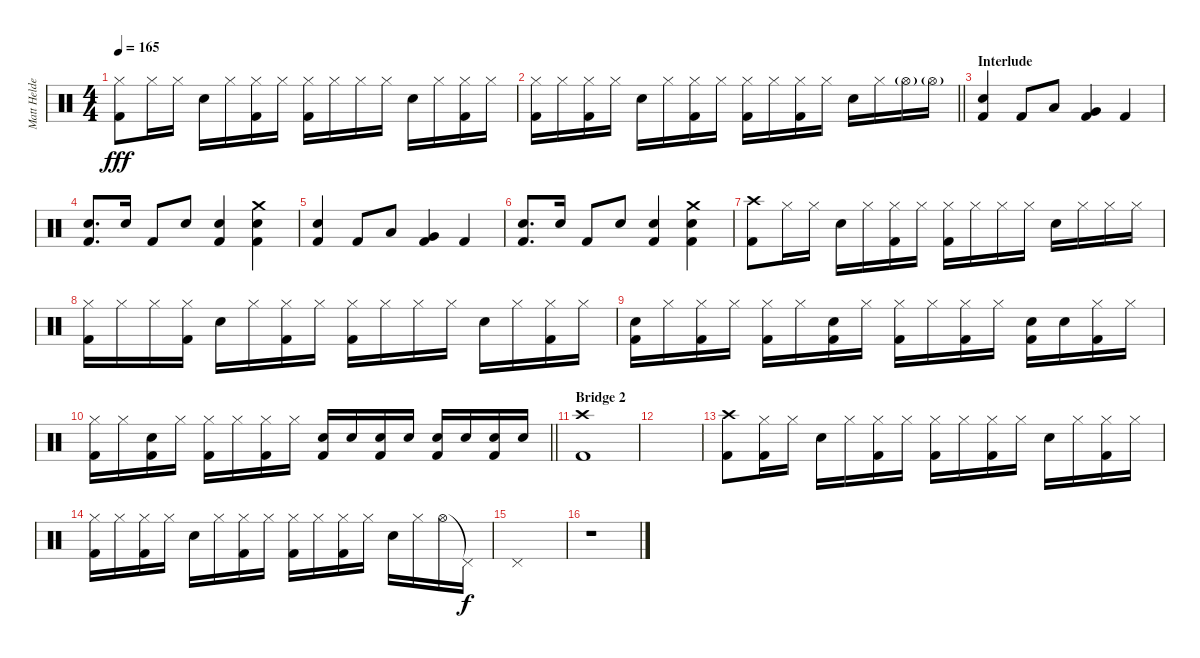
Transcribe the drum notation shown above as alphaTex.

\track ("Matt Helders (Drums)" "Matt Helde") {instrument percussion}
\staff {score}
\articulation defaults
\ts (4 4)
\tempo 165
\clef neutral
\ks c
("Hi-Hat (closed)" "Kick (hit) 2").8{dy fff} "Hi-Hat (closed)".16 "Hi-Hat (closed)".16 "Electric Snare (hit)".16 "Hi-Hat (closed)".16 ("Hi-Hat (closed)" "Kick (hit) 2").16 "Hi-Hat (closed)".16 ("Hi-Hat (closed)" "Kick (hit) 2").16 "Hi-Hat (closed)".16 "Hi-Hat (closed)".16 "Hi-Hat (closed)".16 "Electric Snare (hit)".16 "Hi-Hat (closed)".16 ("Hi-Hat (closed)" "Kick (hit) 2").16 "Hi-Hat (closed)".16 |
\barLineRight lightlight
("Hi-Hat (closed)" "Kick (hit) 2").16 "Hi-Hat (closed)".16 ("Hi-Hat (closed)" "Kick (hit) 2").16 "Hi-Hat (closed)".16 "Electric Snare (hit)".16 "Hi-Hat (closed)".16 ("Hi-Hat (closed)" "Kick (hit) 2").16 "Hi-Hat (closed)".16 ("Hi-Hat (closed)" "Kick (hit) 2").16 "Hi-Hat (closed)".16 ("Hi-Hat (closed)" "Kick (hit) 2").16 "Hi-Hat (closed)".16 "Electric Snare (hit)".16 "Hi-Hat (closed)".16 "Hi-Hat (open)"{g}.16 "Hi-Hat (open)"{g}.16 |
\section ("" "Interlude")
("Electric Snare (hit)" "Kick (hit) 2").4 "Kick (hit) 2".8 "Low Tom (hit)".8 ("Very Low Tom (hit)" "Kick (hit) 2").4 "Kick (hit) 2".4 |
("Electric Snare (hit)" "Kick (hit) 2").8{d} "Electric Snare (hit)".16 "Kick (hit) 2".8 "Electric Snare (hit)".8 ("Electric Snare (hit)" "Kick (hit) 2").4 ("Crash medium (hit)" "Electric Snare (hit)" "Kick (hit) 2").4 |
("Electric Snare (hit)" "Kick (hit) 2").4 "Kick (hit) 2".8 "Low Tom (hit)".8 ("Very Low Tom (hit)" "Kick (hit) 2").4 "Kick (hit) 2".4 |
("Electric Snare (hit)" "Kick (hit) 2").8{d} "Electric Snare (hit)".16 "Kick (hit) 2".8 "Electric Snare (hit)".8 ("Electric Snare (hit)" "Kick (hit) 2").4 ("Crash medium (hit)" "Electric Snare (hit)" "Kick (hit) 2").4 |
("Crash high (hit)" "Kick (hit) 2").8 "Hi-Hat (closed)".16 "Hi-Hat (closed)".16 "Electric Snare (hit)".16 "Hi-Hat (closed)".16 ("Hi-Hat (closed)" "Kick (hit) 2").16 "Hi-Hat (closed)".16 ("Hi-Hat (closed)" "Kick (hit) 2").16 "Hi-Hat (closed)".16 "Hi-Hat (closed)".16 "Hi-Hat (closed)".16 "Electric Snare (hit)".16 "Hi-Hat (closed)".16 "Hi-Hat (closed)".16 "Hi-Hat (closed)".16 |
("Hi-Hat (closed)" "Kick (hit) 2").16 "Hi-Hat (closed)".16 "Hi-Hat (closed)".16 ("Hi-Hat (closed)" "Kick (hit) 2").16 "Electric Snare (hit)".16 "Hi-Hat (closed)".16 ("Hi-Hat (closed)" "Kick (hit) 2").16 "Hi-Hat (closed)".16 ("Hi-Hat (closed)" "Kick (hit) 2").16 "Hi-Hat (closed)".16 "Hi-Hat (closed)".16 "Hi-Hat (closed)".16 "Electric Snare (hit)".16 "Hi-Hat (closed)".16 ("Hi-Hat (closed)" "Kick (hit) 2").16 "Hi-Hat (closed)".16 |
("Electric Snare (hit)" "Kick (hit) 2").16 "Hi-Hat (closed)".16 ("Hi-Hat (closed)" "Kick (hit) 2").16 "Hi-Hat (closed)".16 ("Hi-Hat (closed)" "Kick (hit) 2").16 "Hi-Hat (closed)".16 ("Electric Snare (hit)" "Kick (hit) 2").16 "Hi-Hat (closed)".16 ("Hi-Hat (closed)" "Kick (hit) 2").16 "Hi-Hat (closed)".16 ("Hi-Hat (closed)" "Kick (hit) 2").16 "Hi-Hat (closed)".16 ("Electric Snare (hit)" "Kick (hit) 2").16 "Electric Snare (hit)".16 ("Hi-Hat (closed)" "Kick (hit) 2").16 "Hi-Hat (closed)".16 |
\barLineRight lightlight
("Hi-Hat (closed)" "Kick (hit) 2").16 "Hi-Hat (closed)".16 ("Electric Snare (hit)" "Kick (hit) 2").16 "Hi-Hat (closed)".16 ("Hi-Hat (closed)" "Kick (hit) 2").16 "Hi-Hat (closed)".16 ("Hi-Hat (closed)" "Kick (hit) 2").16 "Hi-Hat (closed)".16 ("Electric Snare (hit)" "Kick (hit) 2").16 "Electric Snare (hit)".16 ("Electric Snare (hit)" "Kick (hit) 2").16 "Electric Snare (hit)".16 ("Electric Snare (hit)" "Kick (hit) 2").16 "Electric Snare (hit)".16 ("Electric Snare (hit)" "Kick (hit) 2").16 "Electric Snare (hit)".16 |
\section ("" "Bridge 2")
("Crash high (hit)" "Kick (hit) 2").1 |
|
("Crash high (hit)" "Kick (hit) 2").8 ("Hi-Hat (closed)" "Kick (hit) 2").16 "Hi-Hat (closed)".16 "Electric Snare (hit)".16 "Hi-Hat (closed)".16 ("Hi-Hat (closed)" "Kick (hit) 2").16 "Hi-Hat (closed)".16 ("Hi-Hat (closed)" "Kick (hit) 2").16 "Hi-Hat (closed)".16 ("Hi-Hat (closed)" "Kick (hit) 2").16 "Hi-Hat (closed)".16 "Electric Snare (hit)".16 "Hi-Hat (closed)".16 ("Hi-Hat (closed)" "Kick (hit) 2").16 "Hi-Hat (closed)".16 |
("Hi-Hat (closed)" "Kick (hit) 2").16 "Hi-Hat (closed)".16 ("Hi-Hat (closed)" "Kick (hit) 2").16 "Hi-Hat (closed)".16 "Electric Snare (hit)".16 "Hi-Hat (closed)".16 ("Hi-Hat (closed)" "Kick (hit) 2").16 "Hi-Hat (closed)".16 ("Hi-Hat (closed)" "Kick (hit) 2").16 "Hi-Hat (closed)".16 ("Hi-Hat (closed)" "Kick (hit) 2").16 "Hi-Hat (closed)".16 "Electric Snare (hit)".16 "Hi-Hat (closed)".16 "Hi-Hat (open)".16 "Pedal Hi-Hat (hit)"{t}.16{dy f} |
"Pedal Hi-Hat (hit)".1 |
r.1
